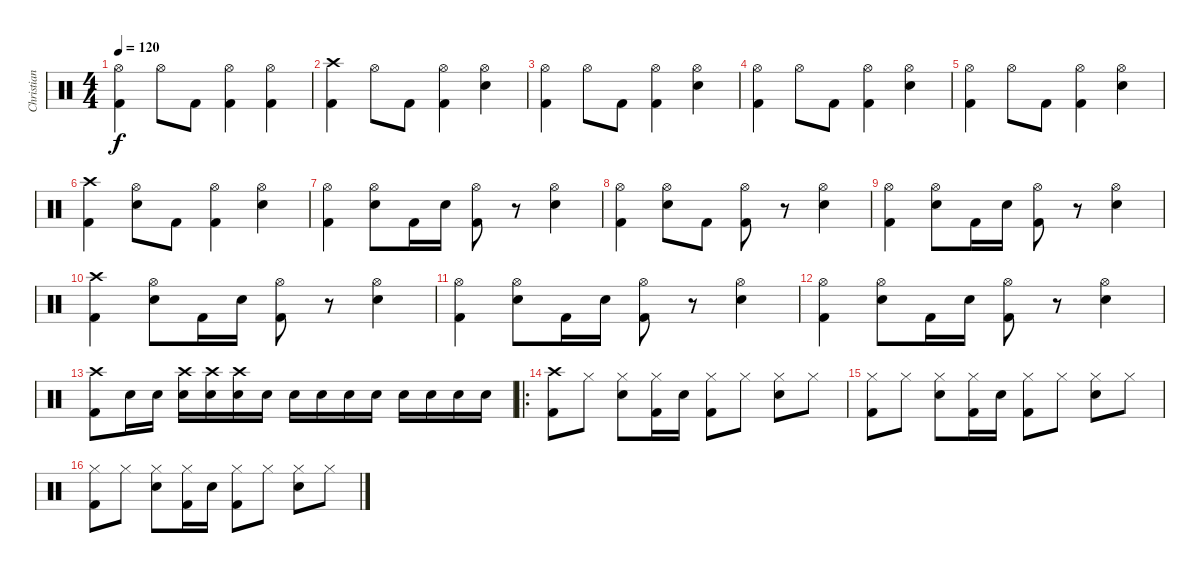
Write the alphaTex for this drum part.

\track ("Christian" "Christian") {instrument percussion}
\staff {score}
\articulation defaults
\ts (4 4)
\tempo 120
\clef neutral
\ks c
("Hi-Hat (open)" "Kick (hit) 2").4{dy f} "Hi-Hat (open)".8 "Kick (hit) 2".8 ("Hi-Hat (open)" "Kick (hit) 2").4 ("Hi-Hat (open)" "Kick (hit) 2").4 |
("Crash high (hit)" "Kick (hit) 2").4 "Hi-Hat (open)".8 "Kick (hit) 2".8 ("Hi-Hat (open)" "Kick (hit) 2").4 ("Hi-Hat (open)" "Snare (hit) 2").4 |
("Hi-Hat (open)" "Kick (hit) 2").4 "Hi-Hat (open)".8 "Kick (hit) 2".8 ("Hi-Hat (open)" "Kick (hit) 2").4 ("Hi-Hat (open)" "Snare (hit) 2").4 |
("Hi-Hat (open)" "Kick (hit) 2").4 "Hi-Hat (open)".8 "Kick (hit) 2".8 ("Hi-Hat (open)" "Kick (hit) 2").4 ("Hi-Hat (open)" "Snare (hit) 2").4 |
("Hi-Hat (open)" "Kick (hit) 2").4 "Hi-Hat (open)".8 "Kick (hit) 2".8 ("Hi-Hat (open)" "Kick (hit) 2").4 ("Hi-Hat (open)" "Snare (hit) 2").4 |
("Crash high (hit)" "Kick (hit) 2").4 ("Hi-Hat (open)" "Snare (hit) 2").8 "Kick (hit) 2".8 ("Hi-Hat (open)" "Kick (hit) 2").4 ("Hi-Hat (open)" "Snare (hit) 2").4 |
("Hi-Hat (open)" "Kick (hit) 2").4 ("Hi-Hat (open)" "Snare (hit) 2").8 "Kick (hit) 2".16 "Snare (hit) 2".16 ("Hi-Hat (open)" "Kick (hit) 2").8 r.8 ("Hi-Hat (open)" "Snare (hit) 2").4 |
("Hi-Hat (open)" "Kick (hit) 2").4 ("Hi-Hat (open)" "Snare (hit) 2").8 "Kick (hit) 2".8 ("Hi-Hat (open)" "Kick (hit) 2").8 r.8 ("Hi-Hat (open)" "Snare (hit) 2").4 |
("Hi-Hat (open)" "Kick (hit) 2").4 ("Hi-Hat (open)" "Snare (hit) 2").8 "Kick (hit) 2".16 "Snare (hit) 2".16 ("Hi-Hat (open)" "Kick (hit) 2").8 r.8 ("Hi-Hat (open)" "Snare (hit) 2").4 |
("Crash high (hit)" "Kick (hit) 2").4 ("Hi-Hat (open)" "Snare (hit) 2").8 "Kick (hit) 2".16 "Snare (hit) 2".16 ("Hi-Hat (open)" "Kick (hit) 2").8 r.8 ("Hi-Hat (open)" "Snare (hit) 2").4 |
("Hi-Hat (open)" "Kick (hit) 2").4 ("Hi-Hat (open)" "Snare (hit) 2").8 "Kick (hit) 2".16 "Snare (hit) 2".16 ("Hi-Hat (open)" "Kick (hit) 2").8 r.8 ("Hi-Hat (open)" "Snare (hit) 2").4 |
("Hi-Hat (open)" "Kick (hit) 2").4 ("Hi-Hat (open)" "Snare (hit) 2").8 "Kick (hit) 2".16 "Snare (hit) 2".16 ("Hi-Hat (open)" "Kick (hit) 2").8 r.8 ("Hi-Hat (open)" "Snare (hit) 2").4 |
("Crash high (hit)" "Kick (hit) 2").8 "Snare (hit) 2".16{volume 5} "Snare (hit) 2".16{volume 10} ("Crash high (hit)" "Snare (hit) 2").16 ("Crash high (hit)" "Snare (hit) 2").16 ("Crash high (hit)" "Snare (hit) 2").16 "Snare (hit) 2".16 "Snare (hit) 2".16 "Snare (hit) 2".16 "Snare (hit) 2".16 "Snare (hit) 2".16 "Snare (hit) 2".16 "Snare (hit) 2".16 "Snare (hit) 2".16 "Snare (hit) 2".16 |
\ro
("Crash high (hit)" "Kick (hit) 2").8 "Hi-Hat (closed)".8 ("Hi-Hat (closed)" "Snare (hit) 2").8 ("Hi-Hat (closed)" "Kick (hit) 2").16 "Snare (hit) 2".16 ("Hi-Hat (closed)" "Kick (hit) 2").8 "Hi-Hat (closed)".8 ("Hi-Hat (closed)" "Snare (hit) 2").8 "Hi-Hat (closed)".8 |
("Hi-Hat (closed)" "Kick (hit) 2").8 "Hi-Hat (closed)".8 ("Hi-Hat (closed)" "Snare (hit) 2").8 ("Hi-Hat (closed)" "Kick (hit) 2").16 "Snare (hit) 2".16 ("Hi-Hat (closed)" "Kick (hit) 2").8 "Hi-Hat (closed)".8 ("Hi-Hat (closed)" "Snare (hit) 2").8 "Hi-Hat (closed)".8 |
("Hi-Hat (closed)" "Kick (hit) 2").8 "Hi-Hat (closed)".8 ("Hi-Hat (closed)" "Snare (hit) 2").8 ("Hi-Hat (closed)" "Kick (hit) 2").16 "Snare (hit) 2".16 ("Hi-Hat (closed)" "Kick (hit) 2").8 "Hi-Hat (closed)".8 ("Hi-Hat (closed)" "Snare (hit) 2").8 "Hi-Hat (closed)".8
